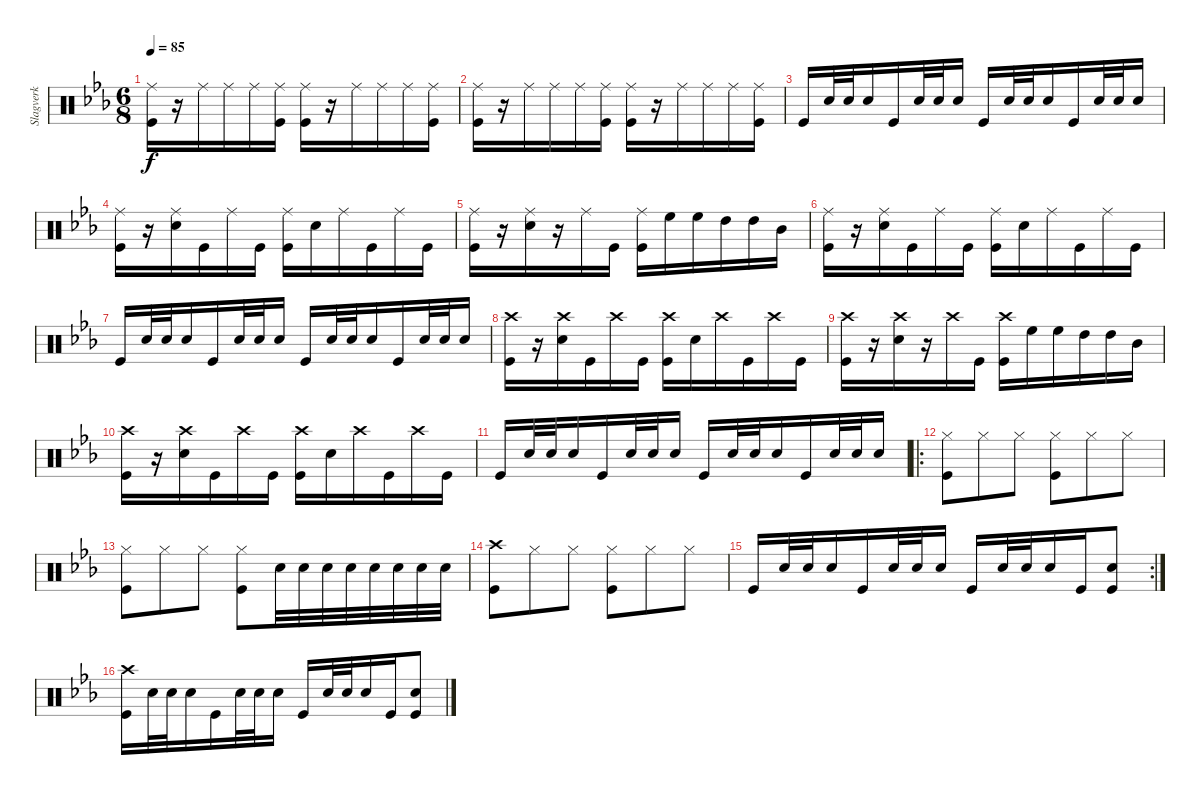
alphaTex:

\track ("Slagverk" "Slagverk") {instrument percussion}
\staff {score}
\articulation defaults
\ts (6 8)
\tempo 85
\clef neutral
\ks eb
("Ride (middle)" "Kick (hit)").16{dy f} r.16 "Ride (middle)".16 "Ride (middle)".16 "Ride (middle)".16 ("Ride (middle)" "Kick (hit)").16 ("Ride (middle)" "Kick (hit)").16 r.16 "Ride (middle)".16 "Ride (middle)".16 "Ride (middle)".16 ("Ride (middle)" "Kick (hit)").16 |
("Ride (middle)" "Kick (hit)").16 r.16 "Ride (middle)".16 "Ride (middle)".16 "Ride (middle)".16 ("Ride (middle)" "Kick (hit)").16 ("Ride (middle)" "Kick (hit)").16 r.16 "Ride (middle)".16 "Ride (middle)".16 "Ride (middle)".16 ("Ride (middle)" "Kick (hit)").16 |
"Kick (hit)".16 "Snare (hit) 2".32 "Snare (hit) 2".32 "Snare (hit) 2".16 "Kick (hit)".16 "Snare (hit) 2".32 "Snare (hit) 2".32 "Snare (hit) 2".16 "Kick (hit)".16 "Snare (hit) 2".32 "Snare (hit) 2".32 "Snare (hit) 2".16 "Kick (hit)".16 "Snare (hit) 2".32 "Snare (hit) 2".32 "Snare (hit) 2".16 |
("Ride (middle)" "Kick (hit)").16 r.16 ("Ride (middle)" "Snare (hit) 2").16 "Kick (hit)".16 "Ride (middle)".16 "Kick (hit)".16 ("Ride (middle)" "Kick (hit)").16 "Snare (hit) 2".16 "Ride (middle)".16 "Kick (hit)".16 "Ride (middle)".16 "Kick (hit)".16 |
("Ride (middle)" "Kick (hit)").16 r.16 ("Ride (middle)" "Snare (hit) 2").16 r.16 "Ride (middle)".16 "Kick (hit)".16 ("Ride (middle)" "Kick (hit)").16 "High Floor Tom (hit)".16 "High Floor Tom (hit)".16 "High Tom (hit)".16 "High Tom (hit)".16 "Mid Tom (hit)".16 |
("Ride (middle)" "Kick (hit)").16 r.16 ("Ride (middle)" "Snare (hit) 2").16 "Kick (hit)".16 "Ride (middle)".16 "Kick (hit)".16 ("Ride (middle)" "Kick (hit)").16 "Snare (hit) 2".16 "Ride (middle)".16 "Kick (hit)".16 "Ride (middle)".16 "Kick (hit)".16 |
"Kick (hit)".16 "Snare (hit) 2".32 "Snare (hit) 2".32 "Snare (hit) 2".16 "Kick (hit)".16 "Snare (hit) 2".32 "Snare (hit) 2".32 "Snare (hit) 2".16 "Kick (hit)".16 "Snare (hit) 2".32 "Snare (hit) 2".32 "Snare (hit) 2".16 "Kick (hit)".16 "Snare (hit) 2".32 "Snare (hit) 2".32 "Snare (hit) 2".16 |
("Crash high (hit)" "Kick (hit)").16 r.16 ("Crash high (hit)" "Snare (hit) 2").16 "Kick (hit)".16 "Crash high (hit)".16 "Kick (hit)".16 ("Crash high (hit)" "Kick (hit)").16 "Snare (hit) 2".16 "Crash high (hit)".16 "Kick (hit)".16 "Crash high (hit)".16 "Kick (hit)".16 |
("Crash high (hit)" "Kick (hit)").16 r.16 ("Crash high (hit)" "Snare (hit) 2").16 r.16 "Crash high (hit)".16 "Kick (hit)".16 ("Crash high (hit)" "Kick (hit)").16 "High Floor Tom (hit)".16 "High Floor Tom (hit)".16 "High Tom (hit)".16 "High Tom (hit)".16 "Mid Tom (hit)".16 |
("Crash high (hit)" "Kick (hit)").16 r.16 ("Crash high (hit)" "Snare (hit) 2").16 "Kick (hit)".16 "Crash high (hit)".16 "Kick (hit)".16 ("Crash high (hit)" "Kick (hit)").16 "Snare (hit) 2".16 "Crash high (hit)".16 "Kick (hit)".16 "Crash high (hit)".16 "Kick (hit)".16 |
"Kick (hit)".16 "Snare (hit) 2".32 "Snare (hit) 2".32 "Snare (hit) 2".16 "Kick (hit)".16 "Snare (hit) 2".32 "Snare (hit) 2".32 "Snare (hit) 2".16 "Kick (hit)".16 "Snare (hit) 2".32 "Snare (hit) 2".32 "Snare (hit) 2".16 "Kick (hit)".16 "Snare (hit) 2".32 "Snare (hit) 2".32 "Snare (hit) 2".16 |
\ro
("Hi-Hat (closed)" "Kick (hit)").8 "Hi-Hat (closed)".8 "Hi-Hat (closed)".8 ("Hi-Hat (closed)" "Kick (hit)").8 "Hi-Hat (closed)".8 "Hi-Hat (closed)".8 |
("Hi-Hat (closed)" "Kick (hit)").8 "Hi-Hat (closed)".8 "Hi-Hat (closed)".8 ("Hi-Hat (closed)" "Kick (hit)").8 "Snare (hit) 2".32 "Snare (hit) 2".32 "Snare (hit) 2".32 "Snare (hit) 2".32 "Snare (hit) 2".32 "Snare (hit) 2".32 "Snare (hit) 2".32 "Snare (hit) 2".32 |
("Crash high (hit)" "Kick (hit)").8 "Hi-Hat (closed)".8 "Hi-Hat (closed)".8 ("Hi-Hat (closed)" "Kick (hit)").8 "Hi-Hat (closed)".8 "Hi-Hat (closed)".8 |
\rc 2 "Kick (hit)".16 "Snare (hit) 2".32 "Snare (hit) 2".32 "Snare (hit) 2".16 "Kick (hit)".16 "Snare (hit) 2".32 "Snare (hit) 2".32 "Snare (hit) 2".16 "Kick (hit)".16 "Snare (hit) 2".32 "Snare (hit) 2".32 "Snare (hit) 2".16 "Kick (hit)".16
("Snare (hit) 2" "Kick (hit)").8 |
("Crash high (hit)" "Kick (hit)").16 "Snare (hit) 2".32 "Snare (hit) 2".32 "Snare (hit) 2".16 "Kick (hit)".16 "Snare (hit) 2".32 "Snare (hit) 2".32 "Snare (hit) 2".16 "Kick (hit)".16 "Snare (hit) 2".32 "Snare (hit) 2".32 "Snare (hit) 2".16 "Kick (hit)".16 ("Snare (hit) 2" "Kick (hit)").8
